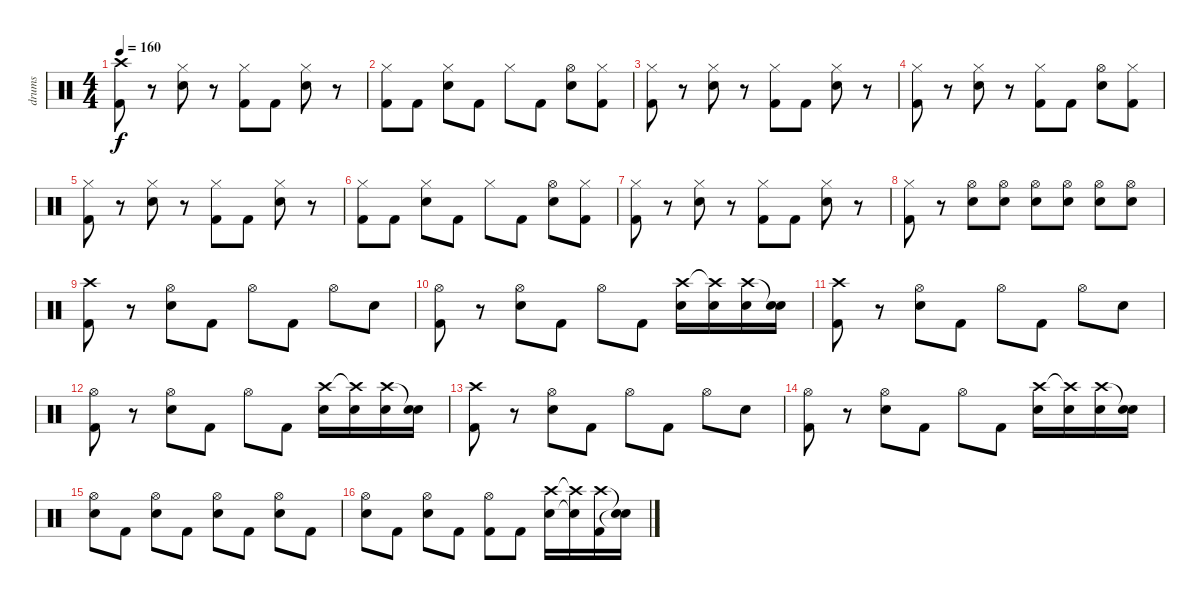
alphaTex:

\track ("drums" "drums") {instrument percussion}
\staff {score}
\articulation defaults
\ts (4 4)
\tempo 160
\clef neutral
\ks c
("Crash high (hit)" "Kick (hit) 2").8{dy f} r.8 ("Hi-Hat (closed)" "Electric Snare (hit)").8 r.8 ("Hi-Hat (closed)" "Kick (hit) 2").8 "Kick (hit) 2".8 ("Hi-Hat (closed)" "Electric Snare (hit)").8 r.8 |
("Hi-Hat (closed)" "Kick (hit) 2").8 "Kick (hit) 2".8 ("Hi-Hat (closed)" "Electric Snare (hit)").8 "Kick (hit) 2".8 "Hi-Hat (closed)".8 "Kick (hit) 2".8 ("Hi-Hat (open)" "Electric Snare (hit)").8 ("Hi-Hat (closed)" "Kick (hit) 2").8 |
("Hi-Hat (closed)" "Kick (hit) 2").8 r.8 ("Hi-Hat (closed)" "Electric Snare (hit)").8 r.8 ("Hi-Hat (closed)" "Kick (hit) 2").8 "Kick (hit) 2".8 ("Hi-Hat (closed)" "Electric Snare (hit)").8 r.8 |
("Hi-Hat (closed)" "Kick (hit) 2").8 r.8 ("Hi-Hat (closed)" "Electric Snare (hit)").8 r.8 ("Hi-Hat (closed)" "Kick (hit) 2").8 "Kick (hit) 2".8 ("Hi-Hat (open)" "Electric Snare (hit)").8 ("Hi-Hat (closed)" "Kick (hit) 2").8 |
("Hi-Hat (closed)" "Kick (hit) 2").8 r.8 ("Hi-Hat (closed)" "Electric Snare (hit)").8 r.8 ("Hi-Hat (closed)" "Kick (hit) 2").8 "Kick (hit) 2".8 ("Hi-Hat (closed)" "Electric Snare (hit)").8 r.8 |
("Hi-Hat (closed)" "Kick (hit) 2").8 "Kick (hit) 2".8 ("Hi-Hat (closed)" "Electric Snare (hit)").8 "Kick (hit) 2".8 "Hi-Hat (closed)".8 "Kick (hit) 2".8 ("Hi-Hat (open)" "Electric Snare (hit)").8 ("Hi-Hat (closed)" "Kick (hit) 2").8 |
("Hi-Hat (closed)" "Kick (hit) 2").8 r.8 ("Hi-Hat (closed)" "Electric Snare (hit)").8 r.8 ("Hi-Hat (closed)" "Kick (hit) 2").8 "Kick (hit) 2".8 ("Hi-Hat (closed)" "Electric Snare (hit)").8 r.8 |
("Hi-Hat (closed)" "Kick (hit) 2").8 r.8 ("Hi-Hat (open)" "Electric Snare (hit)").8 ("Hi-Hat (open)" "Electric Snare (hit)").8 ("Hi-Hat (open)" "Electric Snare (hit)").8 ("Hi-Hat (open)" "Electric Snare (hit)").8 ("Hi-Hat (open)" "Electric Snare (hit)").8 ("Hi-Hat (open)" "Electric Snare (hit)").8 |
("Crash high (hit)" "Kick (hit) 2").8 r.8 ("Hi-Hat (open)" "Electric Snare (hit)").8 "Kick (hit) 2".8 "Hi-Hat (open)".8 "Kick (hit) 2".8 "Hi-Hat (open)".8 "Electric Snare (hit)".8 |
("Hi-Hat (open)" "Kick (hit) 2").8 r.8 ("Hi-Hat (open)" "Electric Snare (hit)").8 "Kick (hit) 2".8 "Hi-Hat (open)".8 "Kick (hit) 2".8 ("Crash high (hit)" "Electric Snare (hit)").16 ("Crash high (hit)"{t} "Electric Snare (hit)").16 ("Crash high (hit)" "Electric Snare (hit)").16 ("Snare (hit)"{t} "Electric Snare (hit)").16 |
("Crash high (hit)" "Kick (hit) 2").8 r.8 ("Hi-Hat (open)" "Electric Snare (hit)").8 "Kick (hit) 2".8 "Hi-Hat (open)".8 "Kick (hit) 2".8 "Hi-Hat (open)".8 "Electric Snare (hit)".8 |
("Hi-Hat (open)" "Kick (hit) 2").8 r.8 ("Hi-Hat (open)" "Electric Snare (hit)").8 "Kick (hit) 2".8 "Hi-Hat (open)".8 "Kick (hit) 2".8 ("Crash high (hit)" "Electric Snare (hit)").16 ("Crash high (hit)"{t} "Electric Snare (hit)").16 ("Crash high (hit)" "Electric Snare (hit)").16 ("Snare (hit)"{t} "Electric Snare (hit)").16 |
("Crash high (hit)" "Kick (hit) 2").8 r.8 ("Hi-Hat (open)" "Electric Snare (hit)").8 "Kick (hit) 2".8 "Hi-Hat (open)".8 "Kick (hit) 2".8 "Hi-Hat (open)".8 "Electric Snare (hit)".8 |
("Hi-Hat (open)" "Kick (hit) 2").8 r.8 ("Hi-Hat (open)" "Electric Snare (hit)").8 "Kick (hit) 2".8 "Hi-Hat (open)".8 "Kick (hit) 2".8 ("Crash high (hit)" "Electric Snare (hit)").16 ("Crash high (hit)"{t} "Electric Snare (hit)").16 ("Crash high (hit)" "Electric Snare (hit)").16 ("Snare (hit)"{t} "Electric Snare (hit)").16 |
("Hi-Hat (open)" "Electric Snare (hit)").8 "Kick (hit) 2".8 ("Hi-Hat (open)" "Electric Snare (hit)").8 "Kick (hit) 2".8 ("Hi-Hat (open)" "Electric Snare (hit)").8 "Kick (hit) 2".8 ("Hi-Hat (open)" "Electric Snare (hit)").8 "Kick (hit) 2".8 |
("Hi-Hat (open)" "Electric Snare (hit)").8 "Kick (hit) 2".8 ("Hi-Hat (open)" "Electric Snare (hit)").8 "Kick (hit) 2".8 ("Hi-Hat (open)" "Kick (hit) 2").8 "Kick (hit) 2".8 ("Crash high (hit)" "Electric Snare (hit)").16 ("Crash high (hit)"{t} "Electric Snare (hit)"{t}).16 ("Crash high (hit)" "Kick (hit) 2").16 ("Snare (hit)"{t} "Electric Snare (hit)"{t}).16
